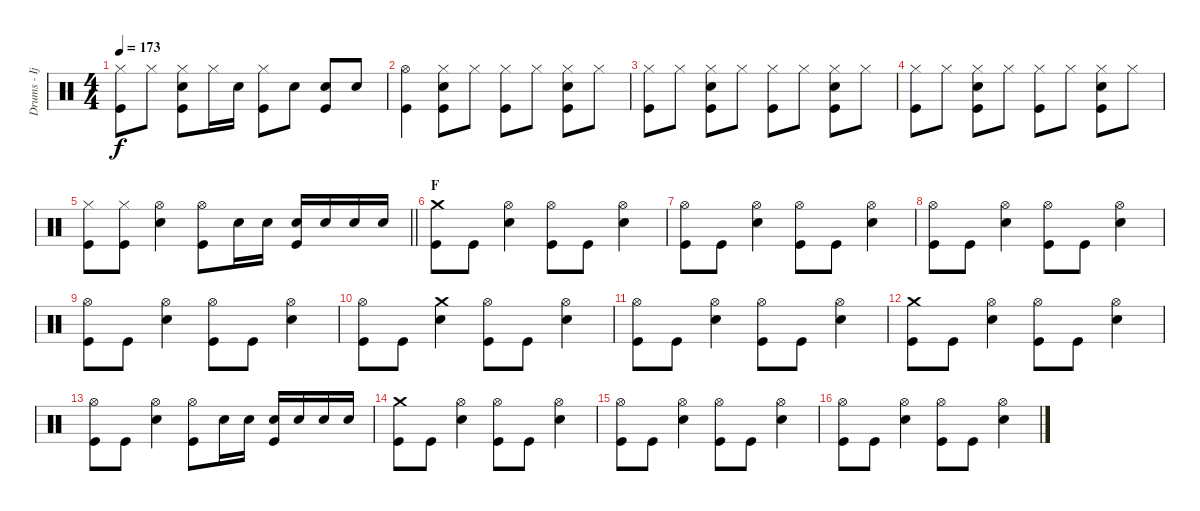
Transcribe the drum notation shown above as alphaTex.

\track ("Drums - Ijichi" "Drums - Ij") {instrument percussion}
\staff {score}
\articulation defaults
\ts (4 4)
\tempo 173
\clef neutral
\ks c
("Hi-Hat (closed)" "Kick (hit)").8{dy f} "Hi-Hat (closed)".8 ("Hi-Hat (closed)" "Electric Snare (hit)" "Kick (hit)").8 "Hi-Hat (closed)".16 "Electric Snare (hit)".16 ("Hi-Hat (closed)" "Kick (hit)").8 "Electric Snare (hit)".8 ("Electric Snare (hit)" "Kick (hit)").8 "Electric Snare (hit)".8 |
("Hi-Hat (open)" "Kick (hit)").4 ("Hi-Hat (closed)" "Electric Snare (hit)" "Kick (hit)").8 "Hi-Hat (closed)".8 ("Hi-Hat (closed)" "Kick (hit)").8 "Hi-Hat (closed)".8 ("Hi-Hat (closed)" "Electric Snare (hit)" "Kick (hit)").8 "Hi-Hat (closed)".8 |
("Hi-Hat (closed)" "Kick (hit)").8 "Hi-Hat (closed)".8 ("Hi-Hat (closed)" "Electric Snare (hit)" "Kick (hit)").8 "Hi-Hat (closed)".8 ("Hi-Hat (closed)" "Kick (hit)").8 "Hi-Hat (closed)".8 ("Hi-Hat (closed)" "Electric Snare (hit)" "Kick (hit)").8 "Hi-Hat (closed)".8 |
("Hi-Hat (closed)" "Kick (hit)").8 "Hi-Hat (closed)".8 ("Hi-Hat (closed)" "Electric Snare (hit)" "Kick (hit)").8 "Hi-Hat (closed)".8 ("Hi-Hat (closed)" "Kick (hit)").8 "Hi-Hat (closed)".8 ("Hi-Hat (closed)" "Electric Snare (hit)" "Kick (hit)").8 "Hi-Hat (closed)".8 |
\barLineRight lightlight
("Hi-Hat (closed)" "Kick (hit)").8 ("Hi-Hat (closed)" "Kick (hit)").8 ("Hi-Hat (open)" "Electric Snare (hit)").4 ("Hi-Hat (open)" "Kick (hit)").8 "Electric Snare (hit)".16 "Electric Snare (hit)".16 ("Electric Snare (hit)" "Kick (hit)").16 "Electric Snare (hit)".16 "Electric Snare (hit)".16 "Electric Snare (hit)".16 |
\section ("" "F")
("Crash medium (hit)" "Kick (hit)").8 "Kick (hit)".8 ("Hi-Hat (open)" "Electric Snare (hit)").4 ("Hi-Hat (open)" "Kick (hit)").8 "Kick (hit)".8 ("Hi-Hat (open)" "Electric Snare (hit)").4 |
("Hi-Hat (open)" "Kick (hit)").8 "Kick (hit)".8 ("Hi-Hat (open)" "Electric Snare (hit)").4 ("Hi-Hat (open)" "Kick (hit)").8 "Kick (hit)".8 ("Hi-Hat (open)" "Electric Snare (hit)").4 |
("Hi-Hat (open)" "Kick (hit)").8 "Kick (hit)".8 ("Hi-Hat (open)" "Electric Snare (hit)").4 ("Hi-Hat (open)" "Kick (hit)").8 "Kick (hit)".8 ("Hi-Hat (open)" "Electric Snare (hit)").4 |
("Hi-Hat (open)" "Kick (hit)").8 "Kick (hit)".8 ("Hi-Hat (open)" "Electric Snare (hit)").4 ("Hi-Hat (open)" "Kick (hit)").8 "Kick (hit)".8 ("Hi-Hat (open)" "Electric Snare (hit)").4 |
("Hi-Hat (open)" "Kick (hit)").8 "Kick (hit)".8 ("Crash medium (hit)" "Electric Snare (hit)").4 ("Hi-Hat (open)" "Kick (hit)").8 "Kick (hit)".8 ("Hi-Hat (open)" "Electric Snare (hit)").4 |
("Hi-Hat (open)" "Kick (hit)").8 "Kick (hit)".8 ("Hi-Hat (open)" "Electric Snare (hit)").4 ("Hi-Hat (open)" "Kick (hit)").8 "Kick (hit)".8 ("Hi-Hat (open)" "Electric Snare (hit)").4 |
("Crash medium (hit)" "Kick (hit)").8 "Kick (hit)".8 ("Hi-Hat (open)" "Electric Snare (hit)").4 ("Hi-Hat (open)" "Kick (hit)").8 "Kick (hit)".8 ("Hi-Hat (open)" "Electric Snare (hit)").4 |
("Hi-Hat (open)" "Kick (hit)").8 "Kick (hit)".8 ("Hi-Hat (open)" "Electric Snare (hit)").4 ("Hi-Hat (open)" "Kick (hit)").8 "Electric Snare (hit)".16 "Electric Snare (hit)".16 ("Electric Snare (hit)" "Kick (hit)").16 "Electric Snare (hit)".16 "Electric Snare (hit)".16 "Electric Snare (hit)".16 |
("Crash medium (hit)" "Kick (hit)").8 "Kick (hit)".8 ("Hi-Hat (open)" "Electric Snare (hit)").4 ("Hi-Hat (open)" "Kick (hit)").8 "Kick (hit)".8 ("Hi-Hat (open)" "Electric Snare (hit)").4 |
("Hi-Hat (open)" "Kick (hit)").8 "Kick (hit)".8 ("Hi-Hat (open)" "Electric Snare (hit)").4 ("Hi-Hat (open)" "Kick (hit)").8 "Kick (hit)".8 ("Hi-Hat (open)" "Electric Snare (hit)").4 |
("Hi-Hat (open)" "Kick (hit)").8 "Kick (hit)".8 ("Hi-Hat (open)" "Electric Snare (hit)").4 ("Hi-Hat (open)" "Kick (hit)").8 "Kick (hit)".8 ("Hi-Hat (open)" "Electric Snare (hit)").4
